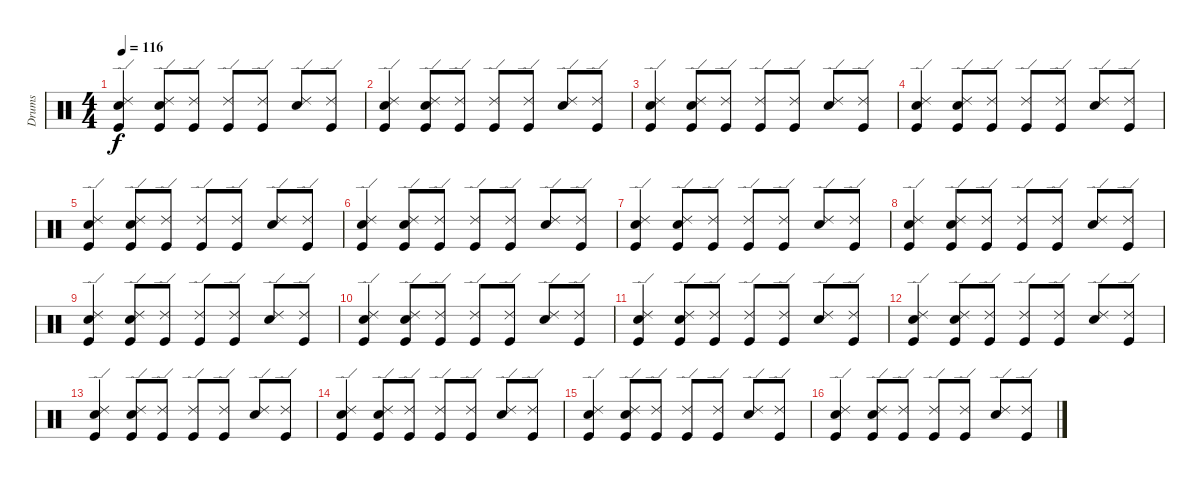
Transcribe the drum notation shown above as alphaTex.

\track ("Drums" "Drums") {instrument percussion}
\staff {score}
\articulation defaults
\ts (4 4)
\tempo 116
\clef neutral
\ks c
("Kick (hit)" "Ride (edge) 2" "Snare (hit) 2").4{dy f} ("Kick (hit)" "Ride (edge) 2" "Snare (hit) 2").8 ("Kick (hit)" "Ride (edge) 2").8 ("Kick (hit)" "Ride (edge) 2").8 ("Kick (hit)" "Ride (edge) 2").8 ("Snare (hit) 2" "Ride (edge) 2").8 ("Kick (hit)" "Ride (edge) 2").8 |
("Kick (hit)" "Ride (edge) 2" "Snare (hit) 2").4 ("Kick (hit)" "Ride (edge) 2" "Snare (hit) 2").8 ("Kick (hit)" "Ride (edge) 2").8 ("Kick (hit)" "Ride (edge) 2").8 ("Kick (hit)" "Ride (edge) 2").8 ("Snare (hit) 2" "Ride (edge) 2").8 ("Kick (hit)" "Ride (edge) 2").8 |
("Kick (hit)" "Ride (edge) 2" "Snare (hit) 2").4 ("Kick (hit)" "Ride (edge) 2" "Snare (hit) 2").8 ("Kick (hit)" "Ride (edge) 2").8 ("Kick (hit)" "Ride (edge) 2").8 ("Kick (hit)" "Ride (edge) 2").8 ("Snare (hit) 2" "Ride (edge) 2").8 ("Kick (hit)" "Ride (edge) 2").8 |
("Kick (hit)" "Ride (edge) 2" "Snare (hit) 2").4 ("Kick (hit)" "Ride (edge) 2" "Snare (hit) 2").8 ("Kick (hit)" "Ride (edge) 2").8 ("Kick (hit)" "Ride (edge) 2").8 ("Kick (hit)" "Ride (edge) 2").8 ("Snare (hit) 2" "Ride (edge) 2").8 ("Kick (hit)" "Ride (edge) 2").8 |
("Kick (hit)" "Ride (edge) 2" "Snare (hit) 2").4 ("Kick (hit)" "Ride (edge) 2" "Snare (hit) 2").8 ("Kick (hit)" "Ride (edge) 2").8 ("Kick (hit)" "Ride (edge) 2").8 ("Kick (hit)" "Ride (edge) 2").8 ("Snare (hit) 2" "Ride (edge) 2").8 ("Kick (hit)" "Ride (edge) 2").8 |
("Kick (hit)" "Ride (edge) 2" "Snare (hit) 2").4 ("Kick (hit)" "Ride (edge) 2" "Snare (hit) 2").8 ("Kick (hit)" "Ride (edge) 2").8 ("Kick (hit)" "Ride (edge) 2").8 ("Kick (hit)" "Ride (edge) 2").8 ("Snare (hit) 2" "Ride (edge) 2").8 ("Kick (hit)" "Ride (edge) 2").8 |
("Kick (hit)" "Ride (edge) 2" "Snare (hit) 2").4 ("Kick (hit)" "Ride (edge) 2" "Snare (hit) 2").8 ("Kick (hit)" "Ride (edge) 2").8 ("Kick (hit)" "Ride (edge) 2").8 ("Kick (hit)" "Ride (edge) 2").8 ("Snare (hit) 2" "Ride (edge) 2").8 ("Kick (hit)" "Ride (edge) 2").8 |
("Kick (hit)" "Ride (edge) 2" "Snare (hit) 2").4 ("Kick (hit)" "Ride (edge) 2" "Snare (hit) 2").8 ("Kick (hit)" "Ride (edge) 2").8 ("Kick (hit)" "Ride (edge) 2").8 ("Kick (hit)" "Ride (edge) 2").8 ("Snare (hit) 2" "Ride (edge) 2").8 ("Kick (hit)" "Ride (edge) 2").8 |
("Kick (hit)" "Ride (edge) 2" "Snare (hit) 2").4 ("Kick (hit)" "Ride (edge) 2" "Snare (hit) 2").8 ("Kick (hit)" "Ride (edge) 2").8 ("Kick (hit)" "Ride (edge) 2").8 ("Kick (hit)" "Ride (edge) 2").8 ("Snare (hit) 2" "Ride (edge) 2").8 ("Kick (hit)" "Ride (edge) 2").8 |
("Kick (hit)" "Ride (edge) 2" "Snare (hit) 2").4 ("Kick (hit)" "Ride (edge) 2" "Snare (hit) 2").8 ("Kick (hit)" "Ride (edge) 2").8 ("Kick (hit)" "Ride (edge) 2").8 ("Kick (hit)" "Ride (edge) 2").8 ("Snare (hit) 2" "Ride (edge) 2").8 ("Kick (hit)" "Ride (edge) 2").8 |
("Kick (hit)" "Ride (edge) 2" "Snare (hit) 2").4 ("Kick (hit)" "Ride (edge) 2" "Snare (hit) 2").8 ("Kick (hit)" "Ride (edge) 2").8 ("Kick (hit)" "Ride (edge) 2").8 ("Kick (hit)" "Ride (edge) 2").8 ("Snare (hit) 2" "Ride (edge) 2").8 ("Kick (hit)" "Ride (edge) 2").8 |
("Kick (hit)" "Ride (edge) 2" "Snare (hit) 2").4 ("Kick (hit)" "Ride (edge) 2" "Snare (hit) 2").8 ("Kick (hit)" "Ride (edge) 2").8 ("Kick (hit)" "Ride (edge) 2").8 ("Kick (hit)" "Ride (edge) 2").8 ("Snare (hit) 2" "Ride (edge) 2").8 ("Kick (hit)" "Ride (edge) 2").8 |
("Kick (hit)" "Ride (edge) 2" "Snare (hit) 2").4 ("Kick (hit)" "Ride (edge) 2" "Snare (hit) 2").8 ("Kick (hit)" "Ride (edge) 2").8 ("Kick (hit)" "Ride (edge) 2").8 ("Kick (hit)" "Ride (edge) 2").8 ("Snare (hit) 2" "Ride (edge) 2").8 ("Kick (hit)" "Ride (edge) 2").8 |
("Kick (hit)" "Ride (edge) 2" "Snare (hit) 2").4 ("Kick (hit)" "Ride (edge) 2" "Snare (hit) 2").8 ("Kick (hit)" "Ride (edge) 2").8 ("Kick (hit)" "Ride (edge) 2").8 ("Kick (hit)" "Ride (edge) 2").8 ("Snare (hit) 2" "Ride (edge) 2").8 ("Kick (hit)" "Ride (edge) 2").8 |
("Kick (hit)" "Ride (edge) 2" "Snare (hit) 2").4 ("Kick (hit)" "Ride (edge) 2" "Snare (hit) 2").8 ("Kick (hit)" "Ride (edge) 2").8 ("Kick (hit)" "Ride (edge) 2").8 ("Kick (hit)" "Ride (edge) 2").8 ("Snare (hit) 2" "Ride (edge) 2").8 ("Kick (hit)" "Ride (edge) 2").8 |
("Kick (hit)" "Ride (edge) 2" "Snare (hit) 2").4 ("Kick (hit)" "Ride (edge) 2" "Snare (hit) 2").8 ("Kick (hit)" "Ride (edge) 2").8 ("Kick (hit)" "Ride (edge) 2").8 ("Kick (hit)" "Ride (edge) 2").8 ("Snare (hit) 2" "Ride (edge) 2").8 ("Kick (hit)" "Ride (edge) 2").8
